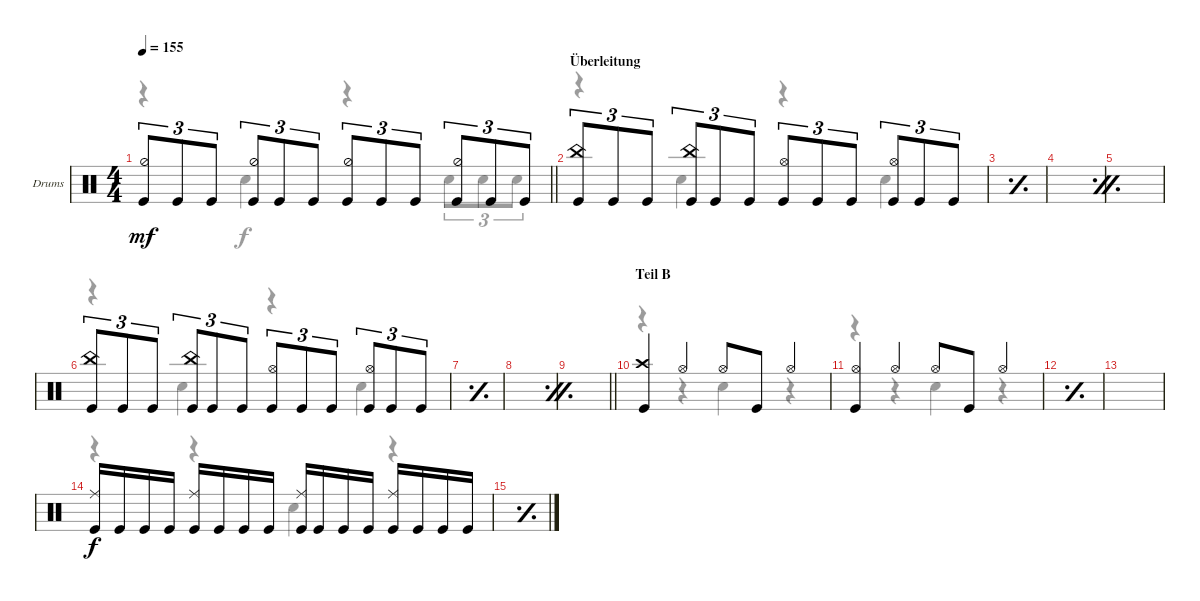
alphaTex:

\defaultSystemsLayout 4
\bracketExtendMode groupsimilarinstruments
\firstSystemTrackNameOrientation horizontal
\otherSystemsTrackNameOrientation horizontal
\track ("Drumkit" "Drums") {instrument percussion}
\staff {score}
\articulation defaults
\voice
\ts (4 4)
\tempo 155
\clef neutral
\barLineRight lightlight
\ks c
("Kick (hit)" "Hi-Hat (half)").8{tu (3 2) dy mf} "Kick (hit)".8{tu (3 2)} "Kick (hit)".8{tu (3 2)} ("Kick (hit)" "Hi-Hat (half)").8{tu (3 2)} "Kick (hit)".8{tu (3 2)} "Kick (hit)".8{tu (3 2)} ("Kick (hit)" "Hi-Hat (half)").8{tu (3 2)} "Kick (hit)".8{tu (3 2)} "Kick (hit)".8{tu (3 2)} ("Kick (hit)" "Hi-Hat (half)").8{tu (3 2)} "Kick (hit)".8{tu (3 2)} "Kick (hit)".8{tu (3 2)} |
\section ("" "Überleitung")
("Kick (hit)" "China (hit)").8{tu (3 2)} "Kick (hit)".8{tu (3 2)} "Kick (hit)".8{tu (3 2)} ("Kick (hit)" "China (hit)").8{tu (3 2)} "Kick (hit)".8{tu (3 2)} "Kick (hit)".8{tu (3 2)} ("Kick (hit)" "Hi-Hat (open)").8{tu (3 2)} "Kick (hit)".8{tu (3 2)} "Kick (hit)".8{tu (3 2)} ("Kick (hit)" "Hi-Hat (open)").8{tu (3 2)} "Kick (hit)".8{tu (3 2)} "Kick (hit)".8{tu (3 2)} |
\simile simple
|
\simile firstofdouble
|
\simile secondofdouble
|
\simile none
("Kick (hit)" "China (hit)").8{tu (3 2)} "Kick (hit)".8{tu (3 2)} "Kick (hit)".8{tu (3 2)} ("Kick (hit)" "China (hit)").8{tu (3 2)} "Kick (hit)".8{tu (3 2)} "Kick (hit)".8{tu (3 2)} ("Kick (hit)" "Hi-Hat (open)").8{tu (3 2)} "Kick (hit)".8{tu (3 2)} "Kick (hit)".8{tu (3 2)} ("Kick (hit)" "Hi-Hat (open)").8{tu (3 2)} "Kick (hit)".8{tu (3 2)} "Kick (hit)".8{tu (3 2)} |
\simile simple
|
\simile firstofdouble
|
\simile secondofdouble
\barLineRight lightlight
|
\section ("" "Teil B")
\simile none
("Kick (hit)" "Crash high (hit)").4 "Hi-Hat (open)".4 "Hi-Hat (open)".8 "Kick (hit)".8 "Hi-Hat (open)".4 |
("Kick (hit)" "Hi-Hat (open)").4 "Hi-Hat (open)".4 "Hi-Hat (open)".8 "Kick (hit)".8 "Hi-Hat (open)".4 |
\simile simple
|
|
\simile none
("Kick (hit)" "Ride (middle)").16{dy f} "Kick (hit)".16 "Kick (hit)".16 "Kick (hit)".16 ("Kick (hit)" "Ride (middle)").16 "Kick (hit)".16 "Kick (hit)".16 "Kick (hit)".16 ("Kick (hit)" "Ride (middle)").16 "Kick (hit)".16 "Kick (hit)".16 "Kick (hit)".16 ("Kick (hit)" "Ride (middle)").16 "Kick (hit)".16 "Kick (hit)".16 "Kick (hit)".16 |
\simile simple
|
\voice
\clef neutral
\ottava regular
\simile none
\barLineRight lightlight
\ks c
r.4{dy f} "Snare (hit) 2".4 r.4 "Snare (hit) 2".8{tu (3 2)} "Snare (hit) 2".8{tu (3 2)} "Snare (hit) 2".8{tu (3 2)} |
r.4 "Snare (hit) 2".4 r.4 "Snare (hit) 2".4 |
\simile simple
|
\simile firstofdouble
|
\simile secondofdouble
|
\simile none
r.4 "Snare (hit) 2".4 r.4 "Snare (hit) 2".4 |
\simile simple
|
\simile firstofdouble
|
\simile secondofdouble
\barLineRight lightlight
|
\simile none
r.4 r.4 "Snare (hit) 2".4 r.4 |
r.4 r.4 "Snare (hit) 2".4 r.4 |
\simile simple
|
|
\simile none
r.4 r.4 "Snare (hit) 2".4 r.4 |
\simile simple
|
